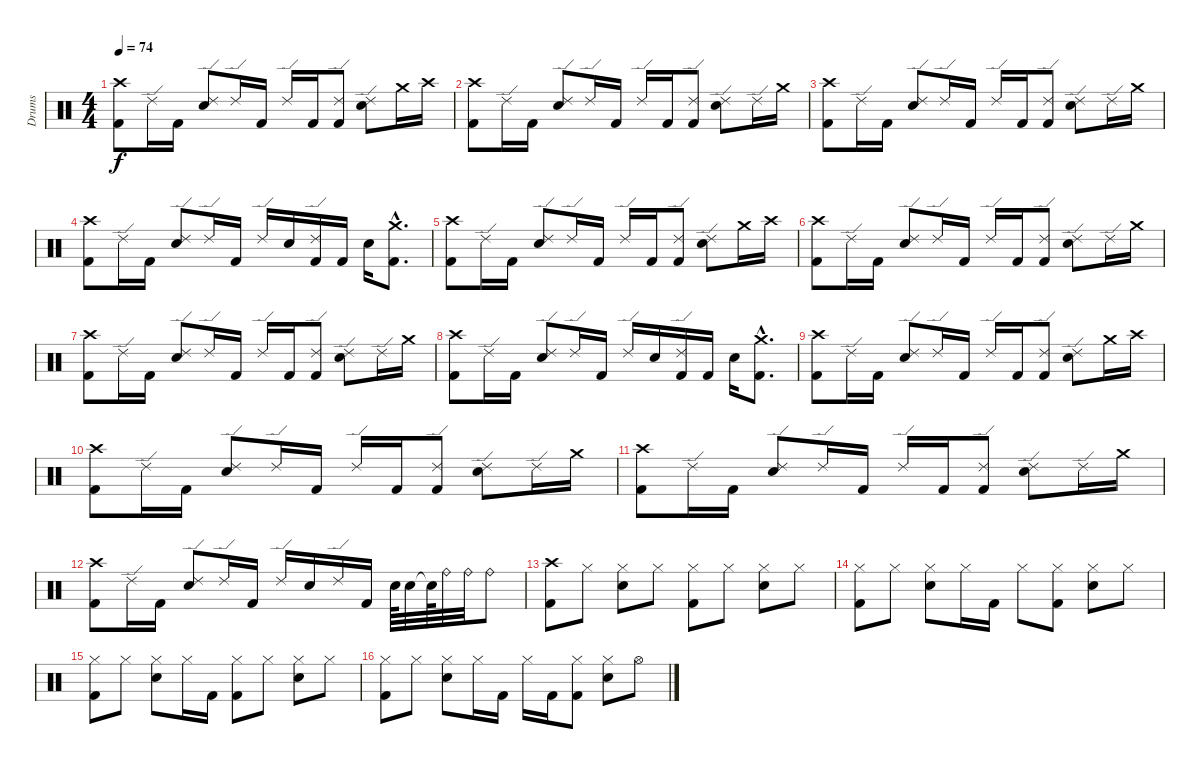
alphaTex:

\track ("Drums" "Drums") {instrument percussion}
\staff {score}
\articulation defaults
\ts (4 4)
\tempo 74
\clef neutral
\ks c
("Crash high (hit)" "Kick (hit) 2").8{dy f} "Ride (edge) 2".16 "Kick (hit) 2".16 ("Ride (edge) 2" "Snare (hit) 2").8 "Ride (edge) 2".16 "Kick (hit) 2".16 "Ride (edge) 2".16 "Kick (hit) 2".16 ("Ride (edge) 2" "Kick (hit) 2").8 ("Ride (edge) 2" "Snare (hit) 2").8 "Crash medium (hit)".16 "Crash high (hit)".16 |
("Crash high (hit)" "Kick (hit) 2").8 "Ride (edge) 2".16 "Kick (hit) 2".16 ("Ride (edge) 2" "Snare (hit) 2").8 "Ride (edge) 2".16 "Kick (hit) 2".16 "Ride (edge) 2".16 "Kick (hit) 2".16 ("Ride (edge) 2" "Kick (hit) 2").8 ("Ride (edge) 2" "Snare (hit) 2").8 "Ride (edge) 2".16 "Crash medium (hit)".16 |
("Crash high (hit)" "Kick (hit) 2").8 "Ride (edge) 2".16 "Kick (hit) 2".16 ("Ride (edge) 2" "Snare (hit) 2").8 "Ride (edge) 2".16 "Kick (hit) 2".16 "Ride (edge) 2".16 "Kick (hit) 2".16 ("Ride (edge) 2" "Kick (hit) 2").8 ("Ride (edge) 2" "Snare (hit) 2").8 "Ride (edge) 2".16 "Crash medium (hit)".16 |
("Crash high (hit)" "Kick (hit) 2").8 "Ride (edge) 2".16 "Kick (hit) 2".16 ("Ride (edge) 2" "Snare (hit) 2").8 "Ride (edge) 2".16 "Kick (hit) 2".16 "Ride (edge) 2".16 "Snare (hit) 2".16 ("Ride (edge) 2" "Kick (hit) 2").16 "Kick (hit) 2".16 "Snare (hit) 2".16 ("Crash medium (hit)"{hac} "Kick (hit) 2"{hac}).8{d} |
("Crash high (hit)" "Kick (hit) 2").8 "Ride (edge) 2".16 "Kick (hit) 2".16 ("Ride (edge) 2" "Snare (hit) 2").8 "Ride (edge) 2".16 "Kick (hit) 2".16 "Ride (edge) 2".16 "Kick (hit) 2".16 ("Ride (edge) 2" "Kick (hit) 2").8 ("Ride (edge) 2" "Snare (hit) 2").8 "Crash medium (hit)".16 "Crash high (hit)".16 |
("Crash high (hit)" "Kick (hit) 2").8 "Ride (edge) 2".16 "Kick (hit) 2".16 ("Ride (edge) 2" "Snare (hit) 2").8 "Ride (edge) 2".16 "Kick (hit) 2".16 "Ride (edge) 2".16 "Kick (hit) 2".16 ("Ride (edge) 2" "Kick (hit) 2").8 ("Ride (edge) 2" "Snare (hit) 2").8 "Ride (edge) 2".16 "Crash medium (hit)".16 |
("Crash high (hit)" "Kick (hit) 2").8 "Ride (edge) 2".16 "Kick (hit) 2".16 ("Ride (edge) 2" "Snare (hit) 2").8 "Ride (edge) 2".16 "Kick (hit) 2".16 "Ride (edge) 2".16 "Kick (hit) 2".16 ("Ride (edge) 2" "Kick (hit) 2").8 ("Ride (edge) 2" "Snare (hit) 2").8 "Ride (edge) 2".16 "Crash medium (hit)".16 |
("Crash high (hit)" "Kick (hit) 2").8 "Ride (edge) 2".16 "Kick (hit) 2".16 ("Ride (edge) 2" "Snare (hit) 2").8 "Ride (edge) 2".16 "Kick (hit) 2".16 "Ride (edge) 2".16 "Snare (hit) 2".16 ("Ride (edge) 2" "Kick (hit) 2").16 "Kick (hit) 2".16 "Snare (hit) 2".16 ("Crash medium (hit)"{hac} "Kick (hit) 2"{hac}).8{d} |
("Crash high (hit)" "Kick (hit) 2").8 "Ride (edge) 2".16 "Kick (hit) 2".16 ("Ride (edge) 2" "Snare (hit) 2").8 "Ride (edge) 2".16 "Kick (hit) 2".16 "Ride (edge) 2".16 "Kick (hit) 2".16 ("Ride (edge) 2" "Kick (hit) 2").8 ("Ride (edge) 2" "Snare (hit) 2").8 "Crash medium (hit)".16 "Crash high (hit)".16 |
("Crash high (hit)" "Kick (hit) 2").8 "Ride (edge) 2".16 "Kick (hit) 2".16 ("Ride (edge) 2" "Snare (hit) 2").8 "Ride (edge) 2".16 "Kick (hit) 2".16 "Ride (edge) 2".16 "Kick (hit) 2".16 ("Ride (edge) 2" "Kick (hit) 2").8 ("Ride (edge) 2" "Snare (hit) 2").8 "Ride (edge) 2".16 "Crash medium (hit)".16 |
("Crash high (hit)" "Kick (hit) 2").8 "Ride (edge) 2".16 "Kick (hit) 2".16 ("Ride (edge) 2" "Snare (hit) 2").8 "Ride (edge) 2".16 "Kick (hit) 2".16 "Ride (edge) 2".16 "Kick (hit) 2".16 ("Ride (edge) 2" "Kick (hit) 2").8 ("Ride (edge) 2" "Snare (hit) 2").8 "Ride (edge) 2".16 "Crash medium (hit)".16 |
("Crash high (hit)" "Kick (hit) 2").8 "Ride (edge) 2".16 "Kick (hit) 2".16 ("Ride (edge) 2" "Snare (hit) 2").8 "Ride (edge) 2".16 "Kick (hit) 2".16 "Ride (edge) 2".16 "Snare (hit) 2".16 "Ride (edge) 2".16 "Kick (hit) 2".16 "Snare (hit) 2".64 "Snare (hit) 2".32 "Snare (hit)"{t}.64 "Ride (bell)".32 "Ride (bell)".32 "Ride (bell)".8 |
("Crash high (hit)" "Kick (hit) 2").8 "Hi-Hat (closed)".8 ("Hi-Hat (closed)" "Snare (hit) 2").8 "Hi-Hat (closed)".8 ("Hi-Hat (closed)" "Kick (hit) 2").8 "Hi-Hat (closed)".8 ("Hi-Hat (closed)" "Snare (hit) 2").8 "Hi-Hat (closed)".8 |
("Hi-Hat (closed)" "Kick (hit) 2").8 "Hi-Hat (closed)".8 ("Hi-Hat (closed)" "Snare (hit) 2").8 "Hi-Hat (closed)".16 "Kick (hit) 2".16 "Hi-Hat (closed)".8 ("Hi-Hat (closed)" "Kick (hit) 2").8 ("Hi-Hat (closed)" "Snare (hit) 2").8 "Hi-Hat (closed)".8 |
("Hi-Hat (closed)" "Kick (hit) 2").8 "Hi-Hat (closed)".8 ("Hi-Hat (closed)" "Snare (hit) 2").8 "Hi-Hat (closed)".16 "Kick (hit) 2".16 ("Hi-Hat (closed)" "Kick (hit) 2").8 "Hi-Hat (closed)".8 ("Hi-Hat (closed)" "Snare (hit) 2").8 "Hi-Hat (closed)".8 |
("Hi-Hat (closed)" "Kick (hit) 2").8 "Hi-Hat (closed)".8 ("Hi-Hat (closed)" "Snare (hit) 2").8 "Hi-Hat (closed)".16 "Kick (hit) 2".16 "Hi-Hat (closed)".16 "Kick (hit) 2".16 ("Hi-Hat (closed)" "Kick (hit) 2").8 ("Hi-Hat (closed)" "Snare (hit) 2").8 "Hi-Hat (open)".8
